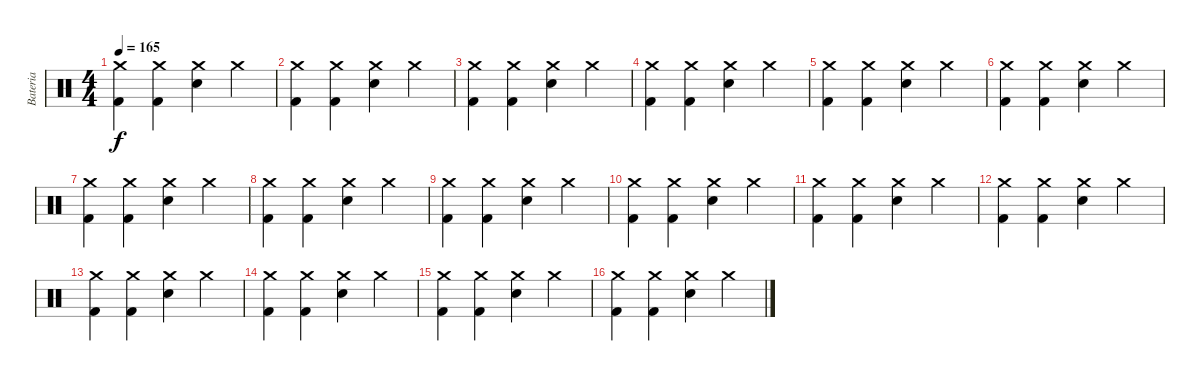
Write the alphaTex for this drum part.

\track ("Bateria" "Bateria") {instrument percussion}
\staff {score}
\articulation defaults
\ts (4 4)
\tempo 165
\clef neutral
\ks c
("Crash medium (hit)" "Kick (hit) 2").4{dy f} ("Crash medium (hit)" "Kick (hit) 2").4 ("Crash medium (hit)" "Electric Snare (hit)").4 "Crash medium (hit)".4 |
("Crash medium (hit)" "Kick (hit) 2").4 ("Crash medium (hit)" "Kick (hit) 2").4 ("Crash medium (hit)" "Electric Snare (hit)").4 "Crash medium (hit)".4 |
("Crash medium (hit)" "Kick (hit) 2").4 ("Crash medium (hit)" "Kick (hit) 2").4 ("Crash medium (hit)" "Electric Snare (hit)").4 "Crash medium (hit)".4 |
("Crash medium (hit)" "Kick (hit) 2").4 ("Crash medium (hit)" "Kick (hit) 2").4 ("Crash medium (hit)" "Electric Snare (hit)").4 "Crash medium (hit)".4 |
("Crash medium (hit)" "Kick (hit) 2").4 ("Crash medium (hit)" "Kick (hit) 2").4 ("Crash medium (hit)" "Electric Snare (hit)").4 "Crash medium (hit)".4 |
("Crash medium (hit)" "Kick (hit) 2").4 ("Crash medium (hit)" "Kick (hit) 2").4 ("Crash medium (hit)" "Electric Snare (hit)").4 "Crash medium (hit)".4 |
("Crash medium (hit)" "Kick (hit) 2").4 ("Crash medium (hit)" "Kick (hit) 2").4 ("Crash medium (hit)" "Electric Snare (hit)").4 "Crash medium (hit)".4 |
("Crash medium (hit)" "Kick (hit) 2").4 ("Crash medium (hit)" "Kick (hit) 2").4 ("Crash medium (hit)" "Electric Snare (hit)").4 "Crash medium (hit)".4 |
("Crash medium (hit)" "Kick (hit) 2").4 ("Crash medium (hit)" "Kick (hit) 2").4 ("Crash medium (hit)" "Electric Snare (hit)").4 "Crash medium (hit)".4 |
("Crash medium (hit)" "Kick (hit) 2").4 ("Crash medium (hit)" "Kick (hit) 2").4 ("Crash medium (hit)" "Electric Snare (hit)").4 "Crash medium (hit)".4 |
("Crash medium (hit)" "Kick (hit) 2").4 ("Crash medium (hit)" "Kick (hit) 2").4 ("Crash medium (hit)" "Electric Snare (hit)").4 "Crash medium (hit)".4 |
("Crash medium (hit)" "Kick (hit) 2").4 ("Crash medium (hit)" "Kick (hit) 2").4 ("Crash medium (hit)" "Electric Snare (hit)").4 "Crash medium (hit)".4 |
("Crash medium (hit)" "Kick (hit) 2").4 ("Crash medium (hit)" "Kick (hit) 2").4 ("Crash medium (hit)" "Electric Snare (hit)").4 "Crash medium (hit)".4 |
("Crash medium (hit)" "Kick (hit) 2").4 ("Crash medium (hit)" "Kick (hit) 2").4 ("Crash medium (hit)" "Electric Snare (hit)").4 "Crash medium (hit)".4 |
("Crash medium (hit)" "Kick (hit) 2").4 ("Crash medium (hit)" "Kick (hit) 2").4 ("Crash medium (hit)" "Electric Snare (hit)").4 "Crash medium (hit)".4 |
("Crash medium (hit)" "Kick (hit) 2").4 ("Crash medium (hit)" "Kick (hit) 2").4 ("Crash medium (hit)" "Electric Snare (hit)").4 "Crash medium (hit)".4
